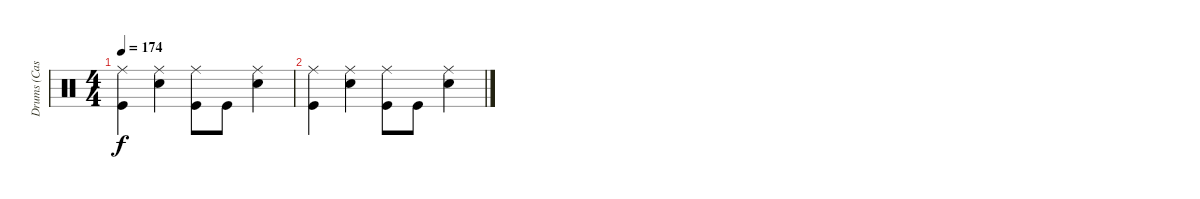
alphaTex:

\track ("Drums (Casey Royer)" "Drums (Cas") {instrument percussion}
\staff {score}
\articulation defaults
\ts (4 4)
\tempo 174
\clef neutral
\ks c
("Ride (middle)" "Kick (hit)").4{dy f} ("Ride (middle)" "Snare (hit) 2").4 ("Ride (middle)" "Kick (hit)").8 "Kick (hit)".8 ("Ride (middle)" "Snare (hit) 2").4 |
("Ride (middle)" "Kick (hit)").4 ("Ride (middle)" "Snare (hit) 2").4 ("Ride (middle)" "Kick (hit)").8 "Kick (hit)".8 ("Ride (middle)" "Snare (hit) 2").4
